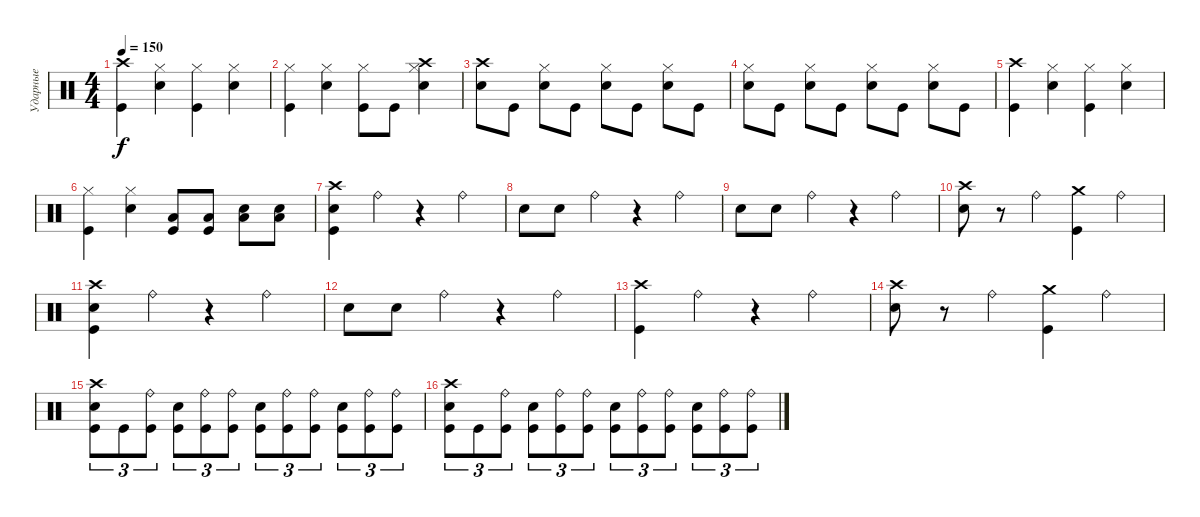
\track ("Ударные" "Ударные") {instrument percussion}
\staff {score}
\articulation defaults
\ts (4 4)
\tempo 150
\clef neutral
\ks c
("Crash high (hit)" "Kick (hit)").4{dy f} ("Hi-Hat (closed)" "Electric Snare (hit)").4 ("Hi-Hat (closed)" "Kick (hit)").4 ("Hi-Hat (closed)" "Electric Snare (hit)").4 |
("Hi-Hat (closed)" "Kick (hit)").4 ("Hi-Hat (closed)" "Electric Snare (hit)").4 ("Hi-Hat (closed)" "Kick (hit)").8 "Kick (hit)".8 ("Crash high (hit)" "Hi-Hat (closed)" "Electric Snare (hit)").4 |
("Crash high (hit)" "Electric Snare (hit)").8 "Kick (hit)".8 ("Hi-Hat (closed)" "Electric Snare (hit)").8 "Kick (hit)".8 ("Hi-Hat (closed)" "Electric Snare (hit)").8 "Kick (hit)".8 ("Hi-Hat (closed)" "Electric Snare (hit)").8 "Kick (hit)".8 |
("Hi-Hat (closed)" "Electric Snare (hit)").8 "Kick (hit)".8 ("Hi-Hat (closed)" "Electric Snare (hit)").8 "Kick (hit)".8 ("Hi-Hat (closed)" "Electric Snare (hit)").8 "Kick (hit)".8 ("Hi-Hat (closed)" "Electric Snare (hit)").8 "Kick (hit)".8 |
("Crash high (hit)" "Kick (hit)").4 ("Hi-Hat (closed)" "Electric Snare (hit)").4 ("Hi-Hat (closed)" "Kick (hit)").4 ("Hi-Hat (closed)" "Electric Snare (hit)").4 |
("Hi-Hat (closed)" "Kick (hit)").4 ("Hi-Hat (closed)" "Electric Snare (hit)").4 ("Low Tom (hit)" "Kick (hit)").8 ("Low Tom (hit)" "Kick (hit)").8 ("Low Tom (hit)" "Electric Snare (hit)").8 ("Low Tom (hit)" "Electric Snare (hit)").8 |
("Crash high (hit)" "Electric Snare (hit)" "Kick (hit)").4 "Ride (bell)".4 r.4 "Ride (bell)".4 |
"Electric Snare (hit)".8 "Electric Snare (hit)".8 "Ride (bell)".4 r.4 "Ride (bell)".4 |
"Electric Snare (hit)".8 "Electric Snare (hit)".8 "Ride (bell)".4 r.4 "Ride (bell)".4 |
("Crash high (hit)" "Electric Snare (hit)").8 r.8 "Ride (bell)".4 ("Crash medium (hit)" "Kick (hit)").4 "Ride (bell)".4 |
("Crash high (hit)" "Electric Snare (hit)" "Kick (hit)").4 "Ride (bell)".4 r.4 "Ride (bell)".4 |
"Electric Snare (hit)".8 "Electric Snare (hit)".8 "Ride (bell)".4 r.4 "Ride (bell)".4 |
("Crash high (hit)" "Kick (hit)").4 "Ride (bell)".4 r.4 "Ride (bell)".4 |
("Crash high (hit)" "Electric Snare (hit)").8 r.8 "Ride (bell)".4 ("Crash medium (hit)" "Kick (hit)").4 "Ride (bell)".4 |
("Crash high (hit)" "Electric Snare (hit)" "Kick (hit)").8{tu (3 2)} "Kick (hit)".8{tu (3 2)} ("Ride (bell)" "Kick (hit)").8{tu (3 2)} ("Electric Snare (hit)" "Kick (hit)").8{tu (3 2)} ("Ride (bell)" "Kick (hit)").8{tu (3 2)} ("Ride (bell)" "Kick (hit)").8{tu (3 2)} ("Electric Snare (hit)" "Kick (hit)").8{tu (3 2)} ("Ride (bell)" "Kick (hit)").8{tu (3 2)} ("Ride (bell)" "Kick (hit)").8{tu (3 2)} ("Electric Snare (hit)" "Kick (hit)").8{tu (3 2)} ("Ride (bell)" "Kick (hit)").8{tu (3 2)} ("Ride (bell)" "Kick (hit)").8{tu (3 2)} |
("Crash high (hit)" "Electric Snare (hit)" "Kick (hit)").8{tu (3 2)} "Kick (hit)".8{tu (3 2)} ("Ride (bell)" "Kick (hit)").8{tu (3 2)} ("Electric Snare (hit)" "Kick (hit)").8{tu (3 2)} ("Ride (bell)" "Kick (hit)").8{tu (3 2)} ("Ride (bell)" "Kick (hit)").8{tu (3 2)} ("Electric Snare (hit)" "Kick (hit)").8{tu (3 2)} ("Ride (bell)" "Kick (hit)").8{tu (3 2)} ("Ride (bell)" "Kick (hit)").8{tu (3 2)} ("Electric Snare (hit)" "Kick (hit)").8{tu (3 2)} ("Ride (bell)" "Kick (hit)").8{tu (3 2)} ("Ride (bell)" "Kick (hit)").8{tu (3 2)}
